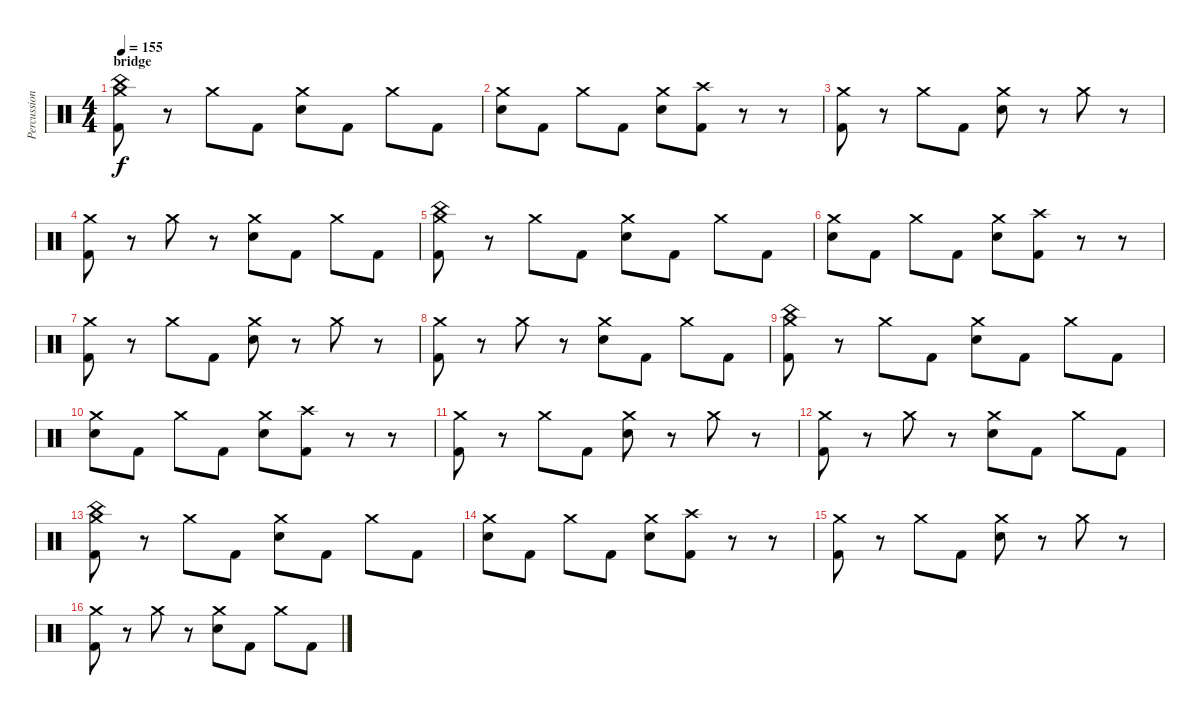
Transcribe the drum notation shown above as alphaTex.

\track ("Percussion" "Percussion") {instrument percussion}
\staff {score}
\articulation defaults
\ts (4 4)
\section ("" "bridge")
\tempo 155
\clef neutral
\ks c
("China (hit)" "Crash medium (hit)" "Kick (hit) 2").8{dy f} r.8 "Crash medium (hit)".8 "Kick (hit) 2".8 ("Crash medium (hit)" "Snare (hit) 2").8 "Kick (hit) 2".8 "Crash medium (hit)".8 "Kick (hit) 2".8 |
("Crash medium (hit)" "Snare (hit) 2").8 "Kick (hit) 2".8 "Crash medium (hit)".8 "Kick (hit) 2".8 ("Crash medium (hit)" "Snare (hit) 2").8 ("Crash high (hit)" "Kick (hit) 2").8 r.8 r.8 |
("Crash medium (hit)" "Kick (hit) 2").8 r.8 "Crash medium (hit)".8 "Kick (hit) 2".8 ("Crash medium (hit)" "Snare (hit) 2").8 r.8 "Crash medium (hit)".8 r.8 |
("Crash medium (hit)" "Kick (hit) 2").8 r.8 "Crash medium (hit)".8 r.8 ("Crash medium (hit)" "Snare (hit) 2").8 "Kick (hit) 2".8 "Crash medium (hit)".8 "Kick (hit) 2".8 |
("China (hit)" "Crash medium (hit)" "Kick (hit) 2").8 r.8 "Crash medium (hit)".8 "Kick (hit) 2".8 ("Crash medium (hit)" "Snare (hit) 2").8 "Kick (hit) 2".8 "Crash medium (hit)".8 "Kick (hit) 2".8 |
("Crash medium (hit)" "Snare (hit) 2").8 "Kick (hit) 2".8 "Crash medium (hit)".8 "Kick (hit) 2".8 ("Crash medium (hit)" "Snare (hit) 2").8 ("Crash high (hit)" "Kick (hit) 2").8 r.8 r.8 |
("Crash medium (hit)" "Kick (hit) 2").8 r.8 "Crash medium (hit)".8 "Kick (hit) 2".8 ("Crash medium (hit)" "Snare (hit) 2").8 r.8 "Crash medium (hit)".8 r.8 |
("Crash medium (hit)" "Kick (hit) 2").8 r.8 "Crash medium (hit)".8 r.8 ("Crash medium (hit)" "Snare (hit) 2").8 "Kick (hit) 2".8 "Crash medium (hit)".8 "Kick (hit) 2".8 |
("China (hit)" "Crash medium (hit)" "Kick (hit) 2").8 r.8 "Crash medium (hit)".8 "Kick (hit) 2".8 ("Crash medium (hit)" "Snare (hit) 2").8 "Kick (hit) 2".8 "Crash medium (hit)".8 "Kick (hit) 2".8 |
("Crash medium (hit)" "Snare (hit) 2").8 "Kick (hit) 2".8 "Crash medium (hit)".8 "Kick (hit) 2".8 ("Crash medium (hit)" "Snare (hit) 2").8 ("Crash high (hit)" "Kick (hit) 2").8 r.8 r.8 |
("Crash medium (hit)" "Kick (hit) 2").8 r.8 "Crash medium (hit)".8 "Kick (hit) 2".8 ("Crash medium (hit)" "Snare (hit) 2").8 r.8 "Crash medium (hit)".8 r.8 |
("Crash medium (hit)" "Kick (hit) 2").8 r.8 "Crash medium (hit)".8 r.8 ("Crash medium (hit)" "Snare (hit) 2").8 "Kick (hit) 2".8 "Crash medium (hit)".8 "Kick (hit) 2".8 |
("China (hit)" "Crash medium (hit)" "Kick (hit) 2").8 r.8 "Crash medium (hit)".8 "Kick (hit) 2".8 ("Crash medium (hit)" "Snare (hit) 2").8 "Kick (hit) 2".8 "Crash medium (hit)".8 "Kick (hit) 2".8 |
("Crash medium (hit)" "Snare (hit) 2").8 "Kick (hit) 2".8 "Crash medium (hit)".8 "Kick (hit) 2".8 ("Crash medium (hit)" "Snare (hit) 2").8 ("Crash high (hit)" "Kick (hit) 2").8 r.8 r.8 |
("Crash medium (hit)" "Kick (hit) 2").8 r.8 "Crash medium (hit)".8 "Kick (hit) 2".8 ("Crash medium (hit)" "Snare (hit) 2").8 r.8 "Crash medium (hit)".8 r.8 |
("Crash medium (hit)" "Kick (hit) 2").8 r.8 "Crash medium (hit)".8 r.8 ("Crash medium (hit)" "Snare (hit) 2").8 "Kick (hit) 2".8 "Crash medium (hit)".8 "Kick (hit) 2".8
